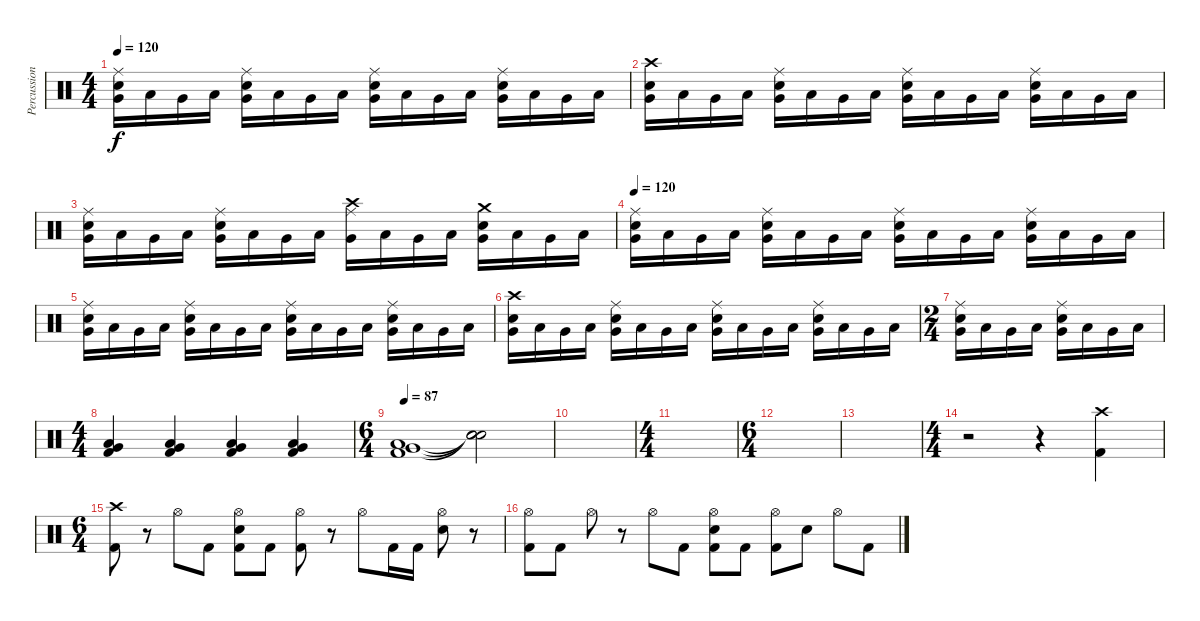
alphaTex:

\track ("Percussion" "Percussion") {instrument percussion}
\staff {score}
\articulation defaults
\ts (4 4)
\tempo 120
\clef neutral
\ks c
("Ride (middle)" "Electric Snare (hit)" "Very Low Tom (hit)").16{dy f} "Low Floor Tom (hit)".16 "Very Low Tom (hit)".16 "Low Floor Tom (hit)".16 ("Ride (middle)" "Electric Snare (hit)" "Very Low Tom (hit)").16 "Low Floor Tom (hit)".16 "Very Low Tom (hit)".16 "Low Floor Tom (hit)".16 ("Ride (middle)" "Electric Snare (hit)" "Very Low Tom (hit)").16 "Low Floor Tom (hit)".16 "Very Low Tom (hit)".16 "Low Floor Tom (hit)".16 ("Ride (middle)" "Electric Snare (hit)" "Very Low Tom (hit)").16 "Low Floor Tom (hit)".16 "Very Low Tom (hit)".16 "Low Floor Tom (hit)".16 |
("Crash high (hit)" "Electric Snare (hit)" "Very Low Tom (hit)").16 "Low Floor Tom (hit)".16 "Very Low Tom (hit)".16 "Low Floor Tom (hit)".16 ("Ride (middle)" "Electric Snare (hit)" "Very Low Tom (hit)").16 "Low Floor Tom (hit)".16 "Very Low Tom (hit)".16 "Low Floor Tom (hit)".16 ("Ride (middle)" "Electric Snare (hit)" "Very Low Tom (hit)").16 "Low Floor Tom (hit)".16 "Very Low Tom (hit)".16 "Low Floor Tom (hit)".16 ("Ride (middle)" "Electric Snare (hit)" "Very Low Tom (hit)").16 "Low Floor Tom (hit)".16 "Very Low Tom (hit)".16 "Low Floor Tom (hit)".16 |
("Ride (middle)" "Electric Snare (hit)" "Very Low Tom (hit)").16 "Low Floor Tom (hit)".16 "Very Low Tom (hit)".16 "Low Floor Tom (hit)".16 ("Ride (middle)" "Electric Snare (hit)" "Very Low Tom (hit)").16 "Low Floor Tom (hit)".16 "Very Low Tom (hit)".16 "Low Floor Tom (hit)".16 ("Crash high (hit)" "Ride (middle)" "Very Low Tom (hit)").16 "Low Floor Tom (hit)".16 "Very Low Tom (hit)".16 "Low Floor Tom (hit)".16 ("Crash medium (hit)" "Electric Snare (hit)" "Very Low Tom (hit)").16 "Low Floor Tom (hit)".16 "Very Low Tom (hit)".16 "Low Floor Tom (hit)".16 |
\tempo 120
("Ride (middle)" "Electric Snare (hit)" "Very Low Tom (hit)").16 "Low Floor Tom (hit)".16 "Very Low Tom (hit)".16 "Low Floor Tom (hit)".16 ("Ride (middle)" "Electric Snare (hit)" "Very Low Tom (hit)").16 "Low Floor Tom (hit)".16 "Very Low Tom (hit)".16 "Low Floor Tom (hit)".16 ("Ride (middle)" "Electric Snare (hit)" "Very Low Tom (hit)").16 "Low Floor Tom (hit)".16 "Very Low Tom (hit)".16 "Low Floor Tom (hit)".16 ("Ride (middle)" "Electric Snare (hit)" "Very Low Tom (hit)").16 "Low Floor Tom (hit)".16 "Very Low Tom (hit)".16 "Low Floor Tom (hit)".16 |
("Ride (middle)" "Electric Snare (hit)" "Very Low Tom (hit)").16 "Low Floor Tom (hit)".16 "Very Low Tom (hit)".16 "Low Floor Tom (hit)".16 ("Ride (middle)" "Electric Snare (hit)" "Very Low Tom (hit)").16 "Low Floor Tom (hit)".16 "Very Low Tom (hit)".16 "Low Floor Tom (hit)".16 ("Ride (middle)" "Electric Snare (hit)" "Very Low Tom (hit)").16 "Low Floor Tom (hit)".16 "Very Low Tom (hit)".16 "Low Floor Tom (hit)".16 ("Ride (middle)" "Electric Snare (hit)" "Very Low Tom (hit)").16 "Low Floor Tom (hit)".16 "Very Low Tom (hit)".16 "Low Floor Tom (hit)".16 |
("Crash high (hit)" "Electric Snare (hit)" "Very Low Tom (hit)").16 "Low Floor Tom (hit)".16 "Very Low Tom (hit)".16 "Low Floor Tom (hit)".16 ("Ride (middle)" "Electric Snare (hit)" "Very Low Tom (hit)").16 "Low Floor Tom (hit)".16 "Very Low Tom (hit)".16 "Low Floor Tom (hit)".16 ("Ride (middle)" "Electric Snare (hit)" "Very Low Tom (hit)").16 "Low Floor Tom (hit)".16 "Very Low Tom (hit)".16 "Low Floor Tom (hit)".16 ("Ride (middle)" "Electric Snare (hit)" "Very Low Tom (hit)").16 "Low Floor Tom (hit)".16 "Very Low Tom (hit)".16 "Low Floor Tom (hit)".16 |
\ts (2 4)
("Ride (middle)" "Electric Snare (hit)" "Very Low Tom (hit)").16 "Low Floor Tom (hit)".16 "Very Low Tom (hit)".16 "Low Floor Tom (hit)".16 ("Ride (middle)" "Electric Snare (hit)" "Very Low Tom (hit)").16 "Low Floor Tom (hit)".16 "Very Low Tom (hit)".16 "Low Floor Tom (hit)".16 |
\ts (4 4)
("Kick (hit) 2" "Very Low Tom (hit)" "Low Tom (hit)").4 ("Kick (hit) 2" "Very Low Tom (hit)" "Low Tom (hit)").4 ("Kick (hit) 2" "Very Low Tom (hit)" "Low Tom (hit)").4 ("Kick (hit) 2" "Very Low Tom (hit)" "Low Tom (hit)").4 |
\ts (6 4)
\tempo 87
("Kick (hit) 2" "Very Low Tom (hit)" "Low Tom (hit)").1 ("Snare (hit)"{t} "Snare (hit)"{t} "Snare (hit)"{t}).2 |
|
\ts (4 4)
|
\ts (6 4)
|
|
\ts (4 4)
r.2 r.4 ("Crash high (hit)" "Kick (hit) 2").4 |
\ts (6 4)
("Crash high (hit)" "Kick (hit) 2").8 r.8 "Hi-Hat (open)".8 "Kick (hit) 2".8 ("Hi-Hat (open)" "Snare (hit) 2" "Kick (hit) 2").8 "Kick (hit) 2".8 ("Hi-Hat (open)" "Kick (hit) 2").8 r.8 "Hi-Hat (open)".8 "Kick (hit) 2".16 "Kick (hit) 2".16 ("Hi-Hat (open)" "Snare (hit) 2").8 r.8 |
("Hi-Hat (open)" "Kick (hit) 2").8 "Kick (hit) 2".8 "Hi-Hat (open)".8 r.8 "Hi-Hat (open)".8 "Kick (hit) 2".8 ("Hi-Hat (open)" "Snare (hit) 2" "Kick (hit) 2").8 "Kick (hit) 2".8 ("Hi-Hat (open)" "Kick (hit) 2").8 "Electric Snare (hit)".8 "Hi-Hat (open)".8 "Kick (hit) 2".8
